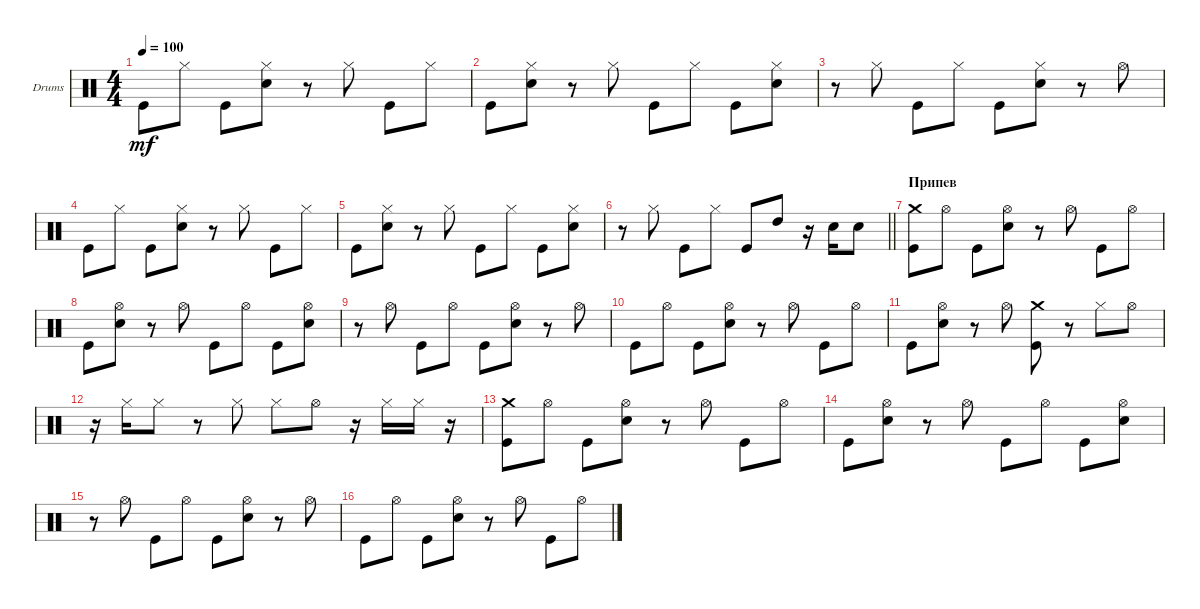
\bracketExtendMode groupsimilarinstruments
\firstSystemTrackNameOrientation horizontal
\otherSystemsTrackNameOrientation horizontal
\track ("Е. Кулаков" "Drums") {instrument percussion}
\staff {score}
\articulation defaults
\ts (4 4)
\tempo 100
\clef neutral
\ks c "Kick (hit)".8{dy mf} "Hi-Hat (closed)".8 "Kick (hit)".8
("Snare (hit) 2" "Hi-Hat (closed)").8 r.8 "Hi-Hat (closed)".8 "Kick (hit)".8 "Hi-Hat (closed)".8 |
"Kick (hit)".8 ("Snare (hit) 2" "Hi-Hat (closed)").8 r.8 "Hi-Hat (closed)".8 "Kick (hit)".8 "Hi-Hat (closed)".8 "Kick (hit)".8 ("Snare (hit) 2" "Hi-Hat (closed)").8 |
r.8 "Hi-Hat (closed)".8 "Kick (hit)".8 "Hi-Hat (closed)".8 "Kick (hit)".8 ("Snare (hit) 2" "Hi-Hat (closed)").8 r.8 "Hi-Hat (open)".8 |
"Kick (hit)".8 "Hi-Hat (closed)".8 "Kick (hit)".8 ("Snare (hit) 2" "Hi-Hat (closed)").8 r.8 "Hi-Hat (closed)".8 "Kick (hit)".8 "Hi-Hat (closed)".8 |
"Kick (hit)".8 ("Snare (hit) 2" "Hi-Hat (closed)").8 r.8 "Hi-Hat (closed)".8 "Kick (hit)".8 "Hi-Hat (closed)".8 "Kick (hit)".8 ("Snare (hit) 2" "Hi-Hat (closed)").8 |
\barLineRight lightlight
r.8 "Hi-Hat (closed)".8 "Kick (hit)".8 "Hi-Hat (closed)".8 "Kick (hit)".8 "High Tom (hit)".8 r.16 "Snare (hit) 2".16 "Snare (hit) 2".8 |
\section ("" "Припев")
("Kick (hit)" "Crash medium (hit)").8 "Hi-Hat (open)".8 "Kick (hit)".8 ("Snare (hit) 2" "Hi-Hat (open)").8 r.8 "Hi-Hat (open)".8 "Kick (hit)".8 "Hi-Hat (open)".8 |
"Kick (hit)".8 ("Snare (hit) 2" "Hi-Hat (open)").8 r.8 "Hi-Hat (open)".8 "Kick (hit)".8 "Hi-Hat (open)".8 "Kick (hit)".8 ("Snare (hit) 2" "Hi-Hat (open)").8 |
r.8 "Hi-Hat (open)".8 "Kick (hit)".8 "Hi-Hat (open)".8 "Kick (hit)".8 ("Snare (hit) 2" "Hi-Hat (open)").8 r.8 "Hi-Hat (open)".8 |
"Kick (hit)".8 "Hi-Hat (open)".8 "Kick (hit)".8 ("Snare (hit) 2" "Hi-Hat (open)").8 r.8 "Hi-Hat (open)".8 "Kick (hit)".8 "Hi-Hat (open)".8 |
"Kick (hit)".8 ("Snare (hit) 2" "Hi-Hat (open)").8 r.8 "Hi-Hat (open)".8 ("Kick (hit)" "Crash medium (hit)").8 r.8 "Hi-Hat (closed)".8 "Hi-Hat (open)".8 |
r.16 "Hi-Hat (closed)".16 "Hi-Hat (closed)".8 r.8 "Hi-Hat (closed)".8 "Hi-Hat (closed)".8 "Hi-Hat (open)".8 r.16 "Hi-Hat (closed)".16 "Hi-Hat (closed)".16 r.16 |
("Kick (hit)" "Crash medium (hit)").8 "Hi-Hat (open)".8 "Kick (hit)".8 ("Snare (hit) 2" "Hi-Hat (open)").8 r.8 "Hi-Hat (open)".8 "Kick (hit)".8 "Hi-Hat (open)".8 |
"Kick (hit)".8 ("Snare (hit) 2" "Hi-Hat (open)").8 r.8 "Hi-Hat (open)".8 "Kick (hit)".8 "Hi-Hat (open)".8 "Kick (hit)".8 ("Snare (hit) 2" "Hi-Hat (open)").8 |
r.8 "Hi-Hat (open)".8 "Kick (hit)".8 "Hi-Hat (open)".8 "Kick (hit)".8 ("Snare (hit) 2" "Hi-Hat (open)").8 r.8 "Hi-Hat (open)".8 |
"Kick (hit)".8 "Hi-Hat (open)".8 "Kick (hit)".8 ("Snare (hit) 2" "Hi-Hat (open)").8 r.8 "Hi-Hat (open)".8 "Kick (hit)".8 "Hi-Hat (open)".8
